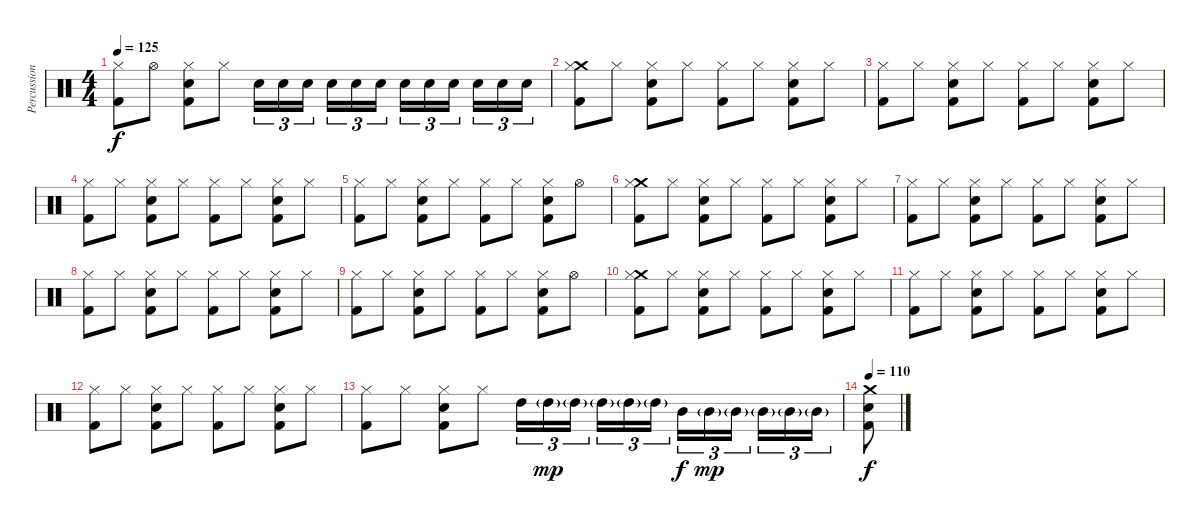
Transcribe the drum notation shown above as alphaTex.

\track ("Percussion" "Percussion") {instrument percussion}
\staff {score}
\articulation defaults
\ts (4 4)
\tempo 125
\clef neutral
\ks c
("Hi-Hat (closed)" "Kick (hit) 2").8{dy f} "Hi-Hat (open)".8 ("Hi-Hat (closed)" "Electric Snare (hit)" "Kick (hit) 2").8 "Hi-Hat (closed)".8 "Electric Snare (hit)".16{tu (3 2)} "Electric Snare (hit)".16{tu (3 2)} "Electric Snare (hit)".16{tu (3 2) beam splitsecondary} "Electric Snare (hit)".16{tu (3 2)} "Electric Snare (hit)".16{tu (3 2)} "Electric Snare (hit)".16{tu (3 2)} "Electric Snare (hit)".16{tu (3 2)} "Electric Snare (hit)".16{tu (3 2)} "Electric Snare (hit)".16{tu (3 2) beam splitsecondary} "Electric Snare (hit)".16{tu (3 2)} "Electric Snare (hit)".16{tu (3 2)} "Electric Snare (hit)".16{tu (3 2)} |
("Crash medium (hit)" "Hi-Hat (closed)" "Kick (hit) 2").8 "Hi-Hat (closed)".8 ("Hi-Hat (closed)" "Electric Snare (hit)" "Kick (hit) 2").8 "Hi-Hat (closed)".8 ("Hi-Hat (closed)" "Kick (hit) 2").8 "Hi-Hat (closed)".8 ("Hi-Hat (closed)" "Electric Snare (hit)" "Kick (hit) 2").8 "Hi-Hat (closed)".8 |
("Hi-Hat (closed)" "Kick (hit) 2").8 "Hi-Hat (closed)".8 ("Hi-Hat (closed)" "Electric Snare (hit)" "Kick (hit) 2").8 "Hi-Hat (closed)".8 ("Hi-Hat (closed)" "Kick (hit) 2").8 "Hi-Hat (closed)".8 ("Hi-Hat (closed)" "Electric Snare (hit)" "Kick (hit) 2").8 "Hi-Hat (closed)".8 |
("Hi-Hat (closed)" "Kick (hit) 2").8 "Hi-Hat (closed)".8 ("Hi-Hat (closed)" "Electric Snare (hit)" "Kick (hit) 2").8 "Hi-Hat (closed)".8 ("Hi-Hat (closed)" "Kick (hit) 2").8 "Hi-Hat (closed)".8 ("Hi-Hat (closed)" "Electric Snare (hit)" "Kick (hit) 2").8 "Hi-Hat (closed)".8 |
("Hi-Hat (closed)" "Kick (hit) 2").8 "Hi-Hat (closed)".8 ("Hi-Hat (closed)" "Electric Snare (hit)" "Kick (hit) 2").8 "Hi-Hat (closed)".8 ("Hi-Hat (closed)" "Kick (hit) 2").8 "Hi-Hat (closed)".8 ("Hi-Hat (closed)" "Electric Snare (hit)" "Kick (hit) 2").8 "Hi-Hat (open)".8 |
("Crash medium (hit)" "Hi-Hat (closed)" "Kick (hit) 2").8 "Hi-Hat (closed)".8 ("Hi-Hat (closed)" "Electric Snare (hit)" "Kick (hit) 2").8 "Hi-Hat (closed)".8 ("Hi-Hat (closed)" "Kick (hit) 2").8 "Hi-Hat (closed)".8 ("Hi-Hat (closed)" "Electric Snare (hit)" "Kick (hit) 2").8 "Hi-Hat (closed)".8 |
("Hi-Hat (closed)" "Kick (hit) 2").8 "Hi-Hat (closed)".8 ("Hi-Hat (closed)" "Electric Snare (hit)" "Kick (hit) 2").8 "Hi-Hat (closed)".8 ("Hi-Hat (closed)" "Kick (hit) 2").8 "Hi-Hat (closed)".8 ("Hi-Hat (closed)" "Electric Snare (hit)" "Kick (hit) 2").8 "Hi-Hat (closed)".8 |
("Hi-Hat (closed)" "Kick (hit) 2").8 "Hi-Hat (closed)".8 ("Hi-Hat (closed)" "Electric Snare (hit)" "Kick (hit) 2").8 "Hi-Hat (closed)".8 ("Hi-Hat (closed)" "Kick (hit) 2").8 "Hi-Hat (closed)".8 ("Hi-Hat (closed)" "Electric Snare (hit)" "Kick (hit) 2").8 "Hi-Hat (closed)".8 |
("Hi-Hat (closed)" "Kick (hit) 2").8 "Hi-Hat (closed)".8 ("Hi-Hat (closed)" "Electric Snare (hit)" "Kick (hit) 2").8 "Hi-Hat (closed)".8 ("Hi-Hat (closed)" "Kick (hit) 2").8 "Hi-Hat (closed)".8 ("Hi-Hat (closed)" "Electric Snare (hit)" "Kick (hit) 2").8 "Hi-Hat (open)".8 |
("Crash medium (hit)" "Hi-Hat (closed)" "Kick (hit) 2").8 "Hi-Hat (closed)".8 ("Hi-Hat (closed)" "Electric Snare (hit)" "Kick (hit) 2").8 "Hi-Hat (closed)".8 ("Hi-Hat (closed)" "Kick (hit) 2").8 "Hi-Hat (closed)".8 ("Hi-Hat (closed)" "Electric Snare (hit)" "Kick (hit) 2").8 "Hi-Hat (closed)".8 |
("Hi-Hat (closed)" "Kick (hit) 2").8 "Hi-Hat (closed)".8 ("Hi-Hat (closed)" "Electric Snare (hit)" "Kick (hit) 2").8 "Hi-Hat (closed)".8 ("Hi-Hat (closed)" "Kick (hit) 2").8 "Hi-Hat (closed)".8 ("Hi-Hat (closed)" "Electric Snare (hit)" "Kick (hit) 2").8 "Hi-Hat (closed)".8 |
("Hi-Hat (closed)" "Kick (hit) 2").8 "Hi-Hat (closed)".8 ("Hi-Hat (closed)" "Electric Snare (hit)" "Kick (hit) 2").8 "Hi-Hat (closed)".8 ("Hi-Hat (closed)" "Kick (hit) 2").8 "Hi-Hat (closed)".8 ("Hi-Hat (closed)" "Electric Snare (hit)" "Kick (hit) 2").8 "Hi-Hat (closed)".8 |
("Hi-Hat (closed)" "Kick (hit) 2").8 "Hi-Hat (closed)".8 ("Hi-Hat (closed)" "Electric Snare (hit)" "Kick (hit) 2").8 "Hi-Hat (closed)".8 "High Tom (hit)".16{tu (3 2)} "High Tom (hit)"{g}.16{tu (3 2) dy mp} "High Tom (hit)"{g}.16{tu (3 2) beam splitsecondary} "High Tom (hit)"{g}.16{tu (3 2)} "High Tom (hit)"{g}.16{tu (3 2)} "High Tom (hit)"{g}.16{tu (3 2)} "Mid Tom (hit)".16{tu (3 2) dy f} "Mid Tom (hit)"{g}.16{tu (3 2) dy mp} "Mid Tom (hit)"{g}.16{tu (3 2) beam splitsecondary} "Mid Tom (hit)"{g}.16{tu (3 2)} "Mid Tom (hit)"{g}.16{tu (3 2)} "Mid Tom (hit)"{g}.16{tu (3 2)} |
\tempo 110
("Crash medium (hit)" "Electric Snare (hit)" "Kick (hit) 2").8{dy f}
